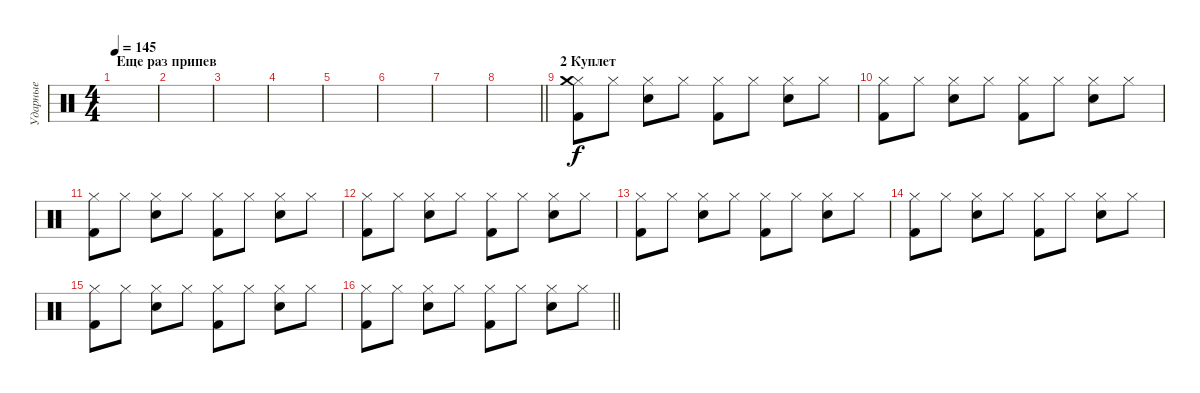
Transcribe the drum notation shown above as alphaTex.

\track ("Ударные" "Ударные") {instrument percussion}
\staff {score}
\articulation defaults
\ts (4 4)
\section ("" "Еще раз припев")
\tempo 145
\clef neutral
\ks c
|
|
|
|
|
|
|
\barLineRight lightlight
|
\section ("" "2 Куплет")
("Hi-Hat (closed)" "Kick (hit) 2" "Crash medium (hit)").8 "Hi-Hat (closed)".8 ("Hi-Hat (closed)" "Snare (hit) 2").8 "Hi-Hat (closed)".8 ("Hi-Hat (closed)" "Kick (hit) 2").8 "Hi-Hat (closed)".8 ("Hi-Hat (closed)" "Snare (hit) 2").8 "Hi-Hat (closed)".8 |
("Hi-Hat (closed)" "Kick (hit) 2").8 "Hi-Hat (closed)".8 ("Hi-Hat (closed)" "Snare (hit) 2").8 "Hi-Hat (closed)".8 ("Hi-Hat (closed)" "Kick (hit) 2").8 "Hi-Hat (closed)".8 ("Hi-Hat (closed)" "Snare (hit) 2").8 "Hi-Hat (closed)".8 |
("Hi-Hat (closed)" "Kick (hit) 2").8 "Hi-Hat (closed)".8 ("Hi-Hat (closed)" "Snare (hit) 2").8 "Hi-Hat (closed)".8 ("Hi-Hat (closed)" "Kick (hit) 2").8 "Hi-Hat (closed)".8 ("Hi-Hat (closed)" "Snare (hit) 2").8 "Hi-Hat (closed)".8 |
("Hi-Hat (closed)" "Kick (hit) 2").8 "Hi-Hat (closed)".8 ("Hi-Hat (closed)" "Snare (hit) 2").8 "Hi-Hat (closed)".8 ("Hi-Hat (closed)" "Kick (hit) 2").8 "Hi-Hat (closed)".8 ("Hi-Hat (closed)" "Snare (hit) 2").8 "Hi-Hat (closed)".8 |
("Hi-Hat (closed)" "Kick (hit) 2").8 "Hi-Hat (closed)".8 ("Hi-Hat (closed)" "Snare (hit) 2").8 "Hi-Hat (closed)".8 ("Hi-Hat (closed)" "Kick (hit) 2").8 "Hi-Hat (closed)".8 ("Hi-Hat (closed)" "Snare (hit) 2").8 "Hi-Hat (closed)".8 |
("Hi-Hat (closed)" "Kick (hit) 2").8 "Hi-Hat (closed)".8 ("Hi-Hat (closed)" "Snare (hit) 2").8 "Hi-Hat (closed)".8 ("Hi-Hat (closed)" "Kick (hit) 2").8 "Hi-Hat (closed)".8 ("Hi-Hat (closed)" "Snare (hit) 2").8 "Hi-Hat (closed)".8 |
("Hi-Hat (closed)" "Kick (hit) 2").8 "Hi-Hat (closed)".8 ("Hi-Hat (closed)" "Snare (hit) 2").8 "Hi-Hat (closed)".8 ("Hi-Hat (closed)" "Kick (hit) 2").8 "Hi-Hat (closed)".8 ("Hi-Hat (closed)" "Snare (hit) 2").8 "Hi-Hat (closed)".8 |
\barLineRight lightlight
("Hi-Hat (closed)" "Kick (hit) 2").8 "Hi-Hat (closed)".8 ("Hi-Hat (closed)" "Snare (hit) 2").8 "Hi-Hat (closed)".8 ("Hi-Hat (closed)" "Kick (hit) 2").8 "Hi-Hat (closed)".8 ("Hi-Hat (closed)" "Snare (hit) 2").8 "Hi-Hat (closed)".8
